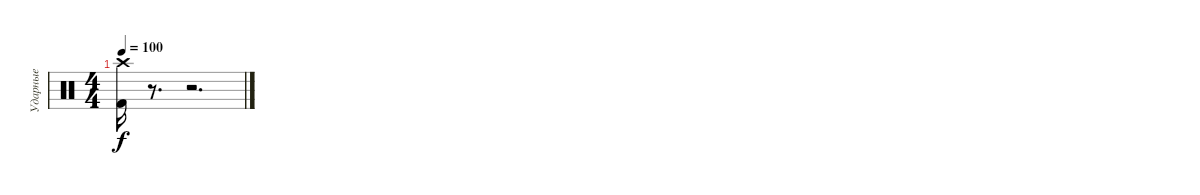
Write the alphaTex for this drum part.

\track ("Ударные" "Ударные") {instrument percussion}
\staff {score}
\articulation defaults
\ts (4 4)
\tempo 100
\clef neutral
\ks c
("Kick (hit) 2" "Crash high (hit)").16{dy f} r.8{d} r.2{d}
